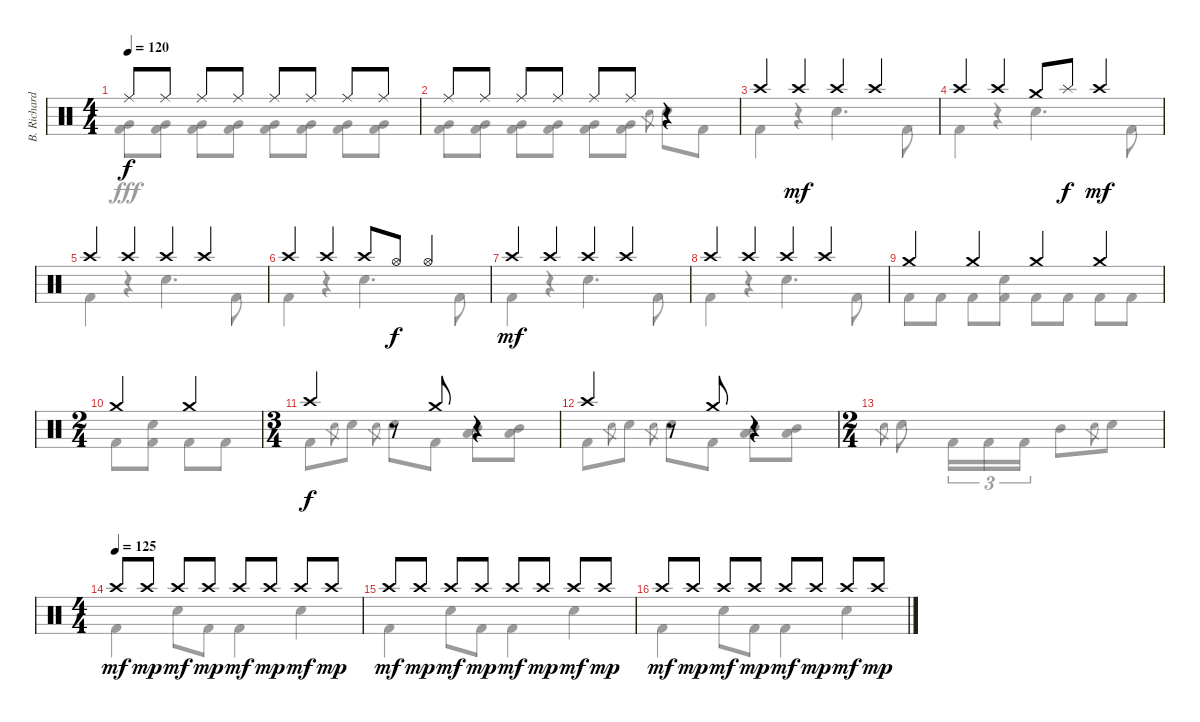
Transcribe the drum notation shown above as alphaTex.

\track ("B. Richardson Drums" "B. Richard") {instrument percussion}
\staff {score}
\articulation defaults
\voice
\ts (4 4)
\tempo 120
\clef neutral
\ks c "Ride (middle)".8{dy f} "Ride (middle)".8 "Ride (middle)".8 "Ride (middle)".8 "Ride (middle)".8 "Ride (middle)".8 "Ride (middle)".8 "Ride (middle)".8
|
"Ride (middle)".8 "Ride (middle)".8 "Ride (middle)".8 "Ride (middle)".8 "Ride (middle)".8 "Ride (middle)".8 r.4 |
"Crash high (hit)".4 "Crash high (hit)".4{dy mf} "Crash high (hit)".4 "Crash high (hit)".4 |
"Crash high (hit)".4 "Crash high (hit)".4 "Crash medium (hit)".8 "Splash (hit)".8{dy f} "Crash high (hit)".4{dy mf} |
"Crash high (hit)".4 "Crash high (hit)".4 "Crash high (hit)".4 "Crash high (hit)".4 |
"Crash high (hit)".4 "Crash high (hit)".4 "Crash high (hit)".8 "Hi-Hat (open)".8{dy f} "Hi-Hat (open)".4 |
"Crash high (hit)".4{dy mf} "Crash high (hit)".4 "Crash high (hit)".4 "Crash high (hit)".4 |
"Crash high (hit)".4 "Crash high (hit)".4 "Crash high (hit)".4 "Crash high (hit)".4 |
"Crash medium (hit)".4 "Crash medium (hit)".4 "Crash medium (hit)".4 "Crash medium (hit)".4 |
\ts (2 4)
"Crash medium (hit)".4 "Crash medium (hit)".4 |
\ts (3 4)
"Crash high (hit)".4{dy f} r.8 "Crash medium (hit)".8 r.4 |
"Crash high (hit)".4 r.8 "Crash medium (hit)".8 r.4 |
\ts (2 4)
|
\ts (4 4)
\tempo (125)
"Crash high (hit)".8{dy mf} "Crash high (hit)".8{dy mp} "Crash high (hit)".8{dy mf} "Crash high (hit)".8{dy mp} "Crash high (hit)".8{dy mf} "Crash high (hit)".8{dy mp} "Crash high (hit)".8{dy mf} "Crash high (hit)".8{dy mp} |
"Crash high (hit)".8{dy mf} "Crash high (hit)".8{dy mp} "Crash high (hit)".8{dy mf} "Crash high (hit)".8{dy mp} "Crash high (hit)".8{dy mf} "Crash high (hit)".8{dy mp} "Crash high (hit)".8{dy mf} "Crash high (hit)".8{dy mp} |
"Crash high (hit)".8{dy mf} "Crash high (hit)".8{dy mp} "Crash high (hit)".8{dy mf} "Crash high (hit)".8{dy mp} "Crash high (hit)".8{dy mf} "Crash high (hit)".8{dy mp} "Crash high (hit)".8{dy mf} "Crash high (hit)".8{dy mp}
\voice
\clef neutral
\ottava regular
\simile none
\ks c
("Very Low Tom (hit)" "Kick (hit) 2").8{dy fff} ("Very Low Tom (hit)" "Kick (hit) 2").8 ("Very Low Tom (hit)" "Kick (hit) 2").8 ("Very Low Tom (hit)" "Kick (hit) 2").8 ("Very Low Tom (hit)" "Kick (hit) 2").8 ("Very Low Tom (hit)" "Kick (hit) 2").8 ("Very Low Tom (hit)" "Kick (hit) 2").8 ("Very Low Tom (hit)" "Kick (hit) 2").8 |
("Very Low Tom (hit)" "Kick (hit) 2").8 ("Very Low Tom (hit)" "Kick (hit) 2").8 ("Very Low Tom (hit)" "Kick (hit) 2").8 ("Very Low Tom (hit)" "Kick (hit) 2").8 ("Very Low Tom (hit)" "Kick (hit) 2").8 ("Very Low Tom (hit)" "Kick (hit) 2").8 "Electric Snare (hit)".8{gr} "Electric Snare (hit)".8 "Kick (hit) 2".8 |
"Kick (hit) 2".4 r.4 "Electric Snare (hit)".4{d} "Kick (hit) 2".8 |
"Kick (hit) 2".4 r.4 "Electric Snare (hit)".4{d} "Kick (hit) 2".8 |
"Kick (hit) 2".4 r.4 "Electric Snare (hit)".4{d} "Kick (hit) 2".8 |
"Kick (hit) 2".4 r.4 "Electric Snare (hit)".4{d} "Kick (hit) 2".8 |
"Kick (hit) 2".4 r.4 "Electric Snare (hit)".4{d} "Kick (hit) 2".8 |
"Kick (hit) 2".4 r.4 "Electric Snare (hit)".4{d} "Kick (hit) 2".8 |
"Kick (hit) 2".8 "Kick (hit) 2".8 "Kick (hit) 2".8 ("Electric Snare (hit)" "Kick (hit) 2").8 "Kick (hit) 2".8 "Kick (hit) 2".8 "Kick (hit) 2".8 "Kick (hit) 2".8 |
"Kick (hit) 2".8 ("Electric Snare (hit)" "Kick (hit) 2").8 "Kick (hit) 2".8 "Kick (hit) 2".8 |
"Kick (hit) 2".8 "Electric Snare (hit)".8{gr} "Electric Snare (hit)".8 "Electric Snare (hit)".8{gr} "Electric Snare (hit)".8 "Kick (hit) 2".8 ("Mid Tom (hit)" "Low Tom (hit)").8 ("Mid Tom (hit)" "Low Tom (hit)").8 |
"Kick (hit) 2".8 "Electric Snare (hit)".8{gr} "Electric Snare (hit)".8 "Electric Snare (hit)".8{gr} "Electric Snare (hit)".8 "Kick (hit) 2".8 ("Mid Tom (hit)" "Low Tom (hit)").8 ("Mid Tom (hit)" "Low Tom (hit)").8 |
"Electric Snare (hit)".8{gr} "Electric Snare (hit)".8 "Kick (hit) 2".16{tu (3 2)} "Kick (hit) 2".16{tu (3 2)} "Kick (hit) 2".16{tu (3 2)} "Mid Tom (hit)".8 "Electric Snare (hit)".8{gr} "Electric Snare (hit)".8 |
"Kick (hit) 2".4 "Electric Snare (hit)".8 "Kick (hit) 2".8 "Kick (hit) 2".4 "Electric Snare (hit)".4 |
"Kick (hit) 2".4 "Electric Snare (hit)".8 "Kick (hit) 2".8 "Kick (hit) 2".4 "Electric Snare (hit)".4 |
"Kick (hit) 2".4 "Electric Snare (hit)".8 "Kick (hit) 2".8 "Kick (hit) 2".4 "Electric Snare (hit)".4
